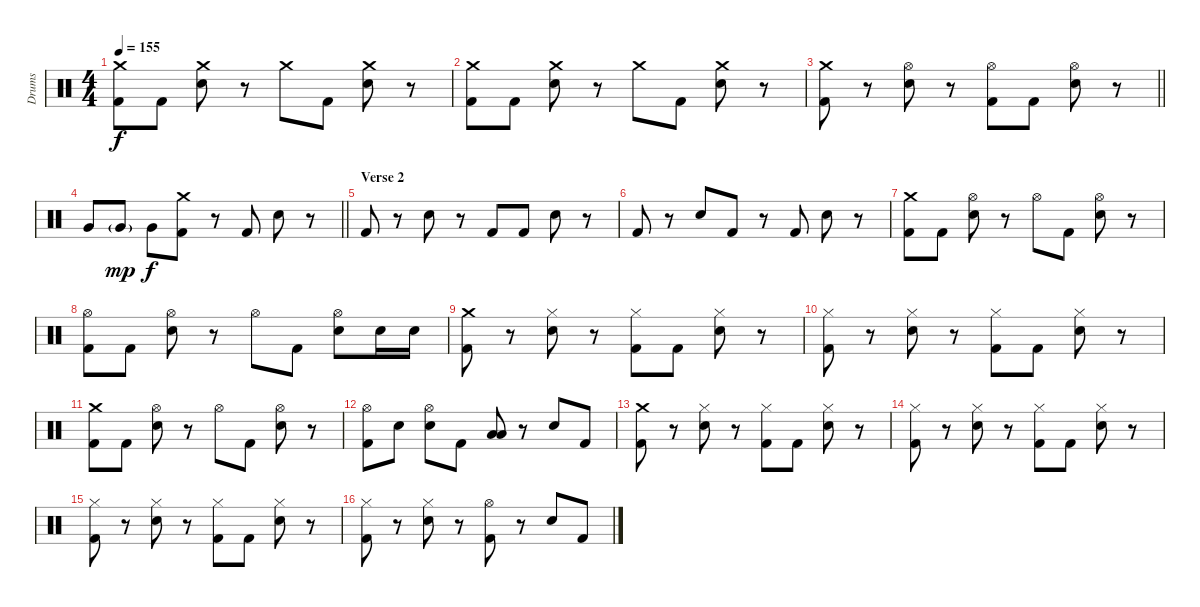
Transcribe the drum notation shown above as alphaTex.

\track ("Drums" "Drums") {instrument percussion}
\staff {score}
\articulation defaults
\ts (4 4)
\tempo 155
\clef neutral
\ks c
("Crash medium (hit)" "Kick (hit) 2").8{dy f} "Kick (hit) 2".8 ("Crash medium (hit)" "Electric Snare (hit)").8 r.8 "Crash medium (hit)".8 "Kick (hit) 2".8 ("Crash medium (hit)" "Electric Snare (hit)").8 r.8 |
("Crash medium (hit)" "Kick (hit) 2").8 "Kick (hit) 2".8 ("Crash medium (hit)" "Electric Snare (hit)").8 r.8 "Crash medium (hit)".8 "Kick (hit) 2".8 ("Crash medium (hit)" "Electric Snare (hit)").8 r.8 |
\barLineRight lightlight
("Crash medium (hit)" "Kick (hit) 2").8 r.8 ("Hi-Hat (open)" "Electric Snare (hit)").8 r.8 ("Hi-Hat (open)" "Kick (hit) 2").8 "Kick (hit) 2".8 ("Hi-Hat (open)" "Electric Snare (hit)").8 r.8 |
\barLineRight lightlight "Very Low Tom (hit)".8 "Very Low Tom (hit)"{g}.8{dy mp} "Very Low Tom (hit)".8{dy f}
("Crash medium (hit)" "Kick (hit) 2").8 r.8 "Kick (hit) 2".8 "Electric Snare (hit)".8 r.8 |
\section ("" "Verse 2")
"Kick (hit) 2".8{volume 12} r.8 "Electric Snare (hit)".8 r.8 "Kick (hit) 2".8 "Kick (hit) 2".8 "Electric Snare (hit)".8 r.8 |
"Kick (hit) 2".8 r.8 "Electric Snare (hit)".8 "Kick (hit) 2".8 r.8 "Kick (hit) 2".8 "Electric Snare (hit)".8 r.8 |
("Crash medium (hit)" "Kick (hit) 2").8{volume 16} "Kick (hit) 2".8 ("Hi-Hat (open)" "Electric Snare (hit)").8 r.8 "Hi-Hat (open)".8 "Kick (hit) 2".8 ("Hi-Hat (open)" "Electric Snare (hit)").8 r.8 |
("Hi-Hat (open)" "Kick (hit) 2").8 "Kick (hit) 2".8 ("Hi-Hat (open)" "Electric Snare (hit)").8 r.8 "Hi-Hat (open)".8 "Kick (hit) 2".8 ("Hi-Hat (open)" "Electric Snare (hit)").8 "Electric Snare (hit)".16 "Electric Snare (hit)".16 |
("Crash medium (hit)" "Kick (hit) 2").8 r.8 ("Hi-Hat (closed)" "Electric Snare (hit)").8 r.8 ("Hi-Hat (closed)" "Kick (hit) 2").8 "Kick (hit) 2".8 ("Hi-Hat (closed)" "Electric Snare (hit)").8 r.8 |
("Hi-Hat (closed)" "Kick (hit) 2").8 r.8 ("Hi-Hat (closed)" "Electric Snare (hit)").8 r.8 ("Hi-Hat (closed)" "Kick (hit) 2").8 "Kick (hit) 2".8 ("Hi-Hat (closed)" "Electric Snare (hit)").8 r.8 |
("Crash medium (hit)" "Kick (hit) 2").8{volume 16} "Kick (hit) 2".8 ("Hi-Hat (open)" "Electric Snare (hit)").8 r.8 "Hi-Hat (open)".8 "Kick (hit) 2".8 ("Hi-Hat (open)" "Electric Snare (hit)").8 r.8 |
("Hi-Hat (open)" "Kick (hit) 2").8 "Electric Snare (hit)".8 ("Hi-Hat (open)" "Electric Snare (hit)").8 "Kick (hit) 2".8 ("Low Tom (hit)" "Low Tom (hit)").8 r.8 "Electric Snare (hit)".8 "Kick (hit) 2".8 |
("Crash medium (hit)" "Kick (hit) 2").8 r.8 ("Hi-Hat (closed)" "Electric Snare (hit)").8 r.8 ("Hi-Hat (closed)" "Kick (hit) 2").8 "Kick (hit) 2".8 ("Hi-Hat (closed)" "Electric Snare (hit)").8 r.8 |
("Hi-Hat (closed)" "Kick (hit) 2").8 r.8 ("Hi-Hat (closed)" "Electric Snare (hit)").8 r.8 ("Hi-Hat (closed)" "Kick (hit) 2").8 "Kick (hit) 2".8 ("Hi-Hat (closed)" "Electric Snare (hit)").8 r.8 |
("Hi-Hat (closed)" "Kick (hit) 2").8 r.8 ("Hi-Hat (closed)" "Electric Snare (hit)").8 r.8 ("Hi-Hat (closed)" "Kick (hit) 2").8 "Kick (hit) 2".8 ("Hi-Hat (closed)" "Electric Snare (hit)").8 r.8 |
("Hi-Hat (closed)" "Kick (hit) 2").8 r.8 ("Hi-Hat (closed)" "Electric Snare (hit)").8 r.8 ("Hi-Hat (open)" "Kick (hit) 2").8 r.8 "Electric Snare (hit)".8 "Kick (hit) 2".8
